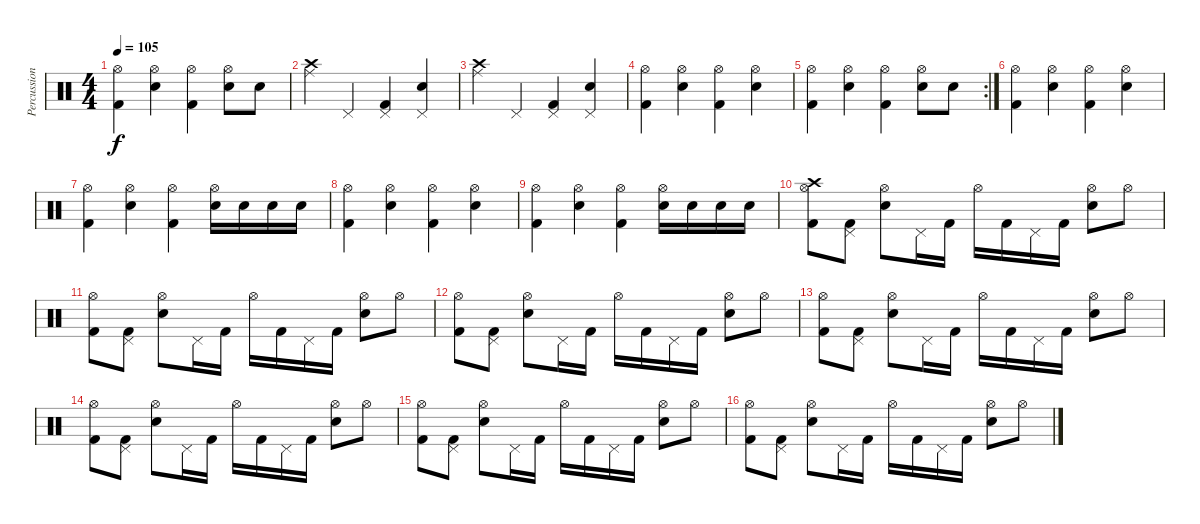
\track ("Percussion" "Percussion") {instrument percussion}
\staff {score}
\articulation defaults
\ts (4 4)
\tempo 105
\clef neutral
\ks c
("Hi-Hat (open)" "Kick (hit) 2").4{dy f} ("Hi-Hat (open)" "Electric Snare (hit)").4 ("Hi-Hat (open)" "Kick (hit) 2").4 ("Hi-Hat (open)" "Electric Snare (hit)").8 "Electric Snare (hit)".8 |
("Crash high (hit)" "Ride (middle)").4 "Pedal Hi-Hat (hit)".4 ("Pedal Hi-Hat (hit)" "Kick (hit) 2").4 ("Pedal Hi-Hat (hit)" "Electric Snare (hit)").4 |
("Crash high (hit)" "Ride (middle)").4 "Pedal Hi-Hat (hit)".4 ("Pedal Hi-Hat (hit)" "Kick (hit) 2").4 ("Pedal Hi-Hat (hit)" "Electric Snare (hit)").4 |
("Hi-Hat (open)" "Kick (hit) 2").4 ("Hi-Hat (open)" "Electric Snare (hit)").4 ("Hi-Hat (open)" "Kick (hit) 2").4 ("Hi-Hat (open)" "Electric Snare (hit)").4 |
\rc 2
("Hi-Hat (open)" "Kick (hit) 2").4 ("Hi-Hat (open)" "Electric Snare (hit)").4 ("Hi-Hat (open)" "Kick (hit) 2").4 ("Hi-Hat (open)" "Electric Snare (hit)").8 "Electric Snare (hit)".8 |
("Hi-Hat (open)" "Kick (hit) 2").4 ("Hi-Hat (open)" "Electric Snare (hit)").4 ("Hi-Hat (open)" "Kick (hit) 2").4 ("Hi-Hat (open)" "Electric Snare (hit)").4 |
("Hi-Hat (open)" "Kick (hit) 2").4 ("Hi-Hat (open)" "Electric Snare (hit)").4 ("Hi-Hat (open)" "Kick (hit) 2").4 ("Hi-Hat (open)" "Electric Snare (hit)").16 "Electric Snare (hit)".16 "Electric Snare (hit)".16 "Electric Snare (hit)".16 |
("Hi-Hat (open)" "Kick (hit) 2").4 ("Hi-Hat (open)" "Electric Snare (hit)").4 ("Hi-Hat (open)" "Kick (hit) 2").4 ("Hi-Hat (open)" "Electric Snare (hit)").4 |
("Hi-Hat (open)" "Kick (hit) 2").4 ("Hi-Hat (open)" "Electric Snare (hit)").4 ("Hi-Hat (open)" "Kick (hit) 2").4 ("Hi-Hat (open)" "Electric Snare (hit)").16 "Electric Snare (hit)".16 "Electric Snare (hit)".16 "Electric Snare (hit)".16 |
("Hi-Hat (open)" "Crash high (hit)" "Kick (hit) 2").8 ("Pedal Hi-Hat (hit)" "Kick (hit) 2").8 ("Hi-Hat (open)" "Electric Snare (hit)").8 "Pedal Hi-Hat (hit)".16 "Kick (hit) 2".16 "Hi-Hat (open)".16 "Kick (hit) 2".16 "Pedal Hi-Hat (hit)".16 "Kick (hit) 2".16 ("Hi-Hat (open)" "Electric Snare (hit)").8 "Hi-Hat (open)".8 |
("Hi-Hat (open)" "Kick (hit) 2").8 ("Pedal Hi-Hat (hit)" "Kick (hit) 2").8 ("Hi-Hat (open)" "Electric Snare (hit)").8 "Pedal Hi-Hat (hit)".16 "Kick (hit) 2".16 "Hi-Hat (open)".16 "Kick (hit) 2".16 "Pedal Hi-Hat (hit)".16 "Kick (hit) 2".16 ("Hi-Hat (open)" "Electric Snare (hit)").8 "Hi-Hat (open)".8 |
("Hi-Hat (open)" "Kick (hit) 2").8 ("Pedal Hi-Hat (hit)" "Kick (hit) 2").8 ("Hi-Hat (open)" "Electric Snare (hit)").8 "Pedal Hi-Hat (hit)".16 "Kick (hit) 2".16 "Hi-Hat (open)".16 "Kick (hit) 2".16 "Pedal Hi-Hat (hit)".16 "Kick (hit) 2".16 ("Hi-Hat (open)" "Electric Snare (hit)").8 "Hi-Hat (open)".8 |
("Hi-Hat (open)" "Kick (hit) 2").8 ("Pedal Hi-Hat (hit)" "Kick (hit) 2").8 ("Hi-Hat (open)" "Electric Snare (hit)").8 "Pedal Hi-Hat (hit)".16 "Kick (hit) 2".16 "Hi-Hat (open)".16 "Kick (hit) 2".16 "Pedal Hi-Hat (hit)".16 "Kick (hit) 2".16 ("Hi-Hat (open)" "Electric Snare (hit)").8 "Hi-Hat (open)".8 |
("Hi-Hat (open)" "Kick (hit) 2").8 ("Pedal Hi-Hat (hit)" "Kick (hit) 2").8 ("Hi-Hat (open)" "Electric Snare (hit)").8 "Pedal Hi-Hat (hit)".16 "Kick (hit) 2".16 "Hi-Hat (open)".16 "Kick (hit) 2".16 "Pedal Hi-Hat (hit)".16 "Kick (hit) 2".16 ("Hi-Hat (open)" "Electric Snare (hit)").8 "Hi-Hat (open)".8 |
("Hi-Hat (open)" "Kick (hit) 2").8 ("Pedal Hi-Hat (hit)" "Kick (hit) 2").8 ("Hi-Hat (open)" "Electric Snare (hit)").8 "Pedal Hi-Hat (hit)".16 "Kick (hit) 2".16 "Hi-Hat (open)".16 "Kick (hit) 2".16 "Pedal Hi-Hat (hit)".16 "Kick (hit) 2".16 ("Hi-Hat (open)" "Electric Snare (hit)").8 "Hi-Hat (open)".8 |
("Hi-Hat (open)" "Kick (hit) 2").8 ("Pedal Hi-Hat (hit)" "Kick (hit) 2").8 ("Hi-Hat (open)" "Electric Snare (hit)").8 "Pedal Hi-Hat (hit)".16 "Kick (hit) 2".16 "Hi-Hat (open)".16 "Kick (hit) 2".16 "Pedal Hi-Hat (hit)".16 "Kick (hit) 2".16 ("Hi-Hat (open)" "Electric Snare (hit)").8 "Hi-Hat (open)".8
